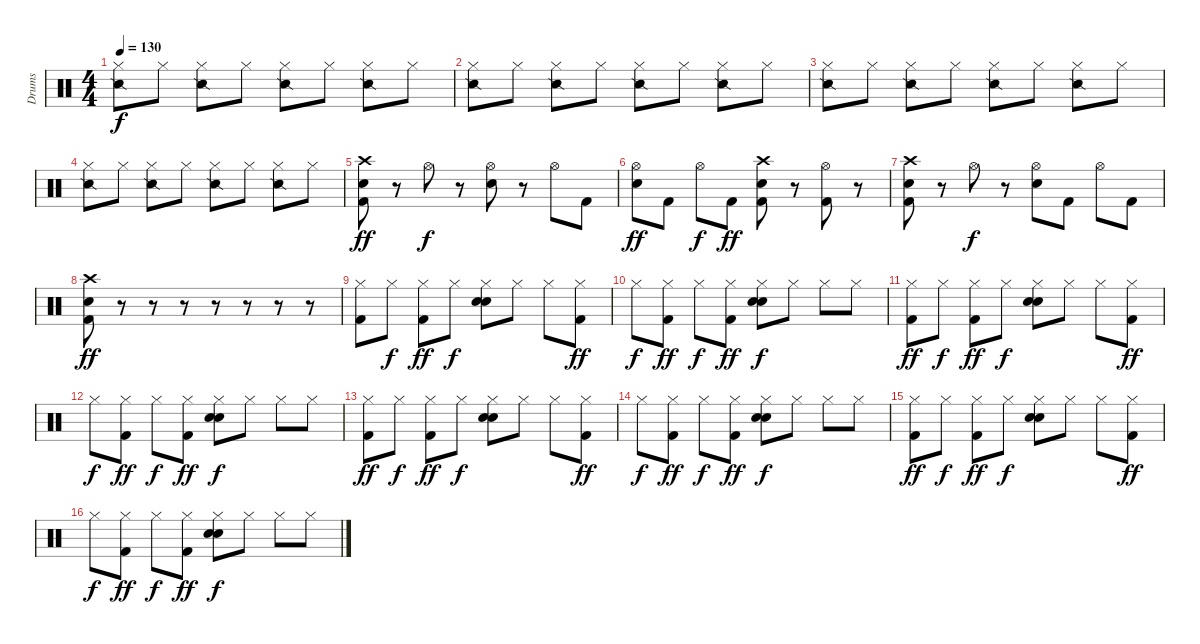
\track ("Drums" "Drums") {instrument percussion}
\staff {score}
\articulation defaults
\ts (4 4)
\tempo 130
\clef neutral
\ks c
("Snare (side stick) 2" "Hi-Hat (closed)").8{dy f} "Hi-Hat (closed)".8 ("Snare (side stick) 2" "Hi-Hat (closed)").8 "Hi-Hat (closed)".8 ("Snare (side stick) 2" "Hi-Hat (closed)").8 "Hi-Hat (closed)".8 ("Snare (side stick) 2" "Hi-Hat (closed)").8 "Hi-Hat (closed)".8 |
("Snare (side stick) 2" "Hi-Hat (closed)").8 "Hi-Hat (closed)".8 ("Snare (side stick) 2" "Hi-Hat (closed)").8 "Hi-Hat (closed)".8 ("Snare (side stick) 2" "Hi-Hat (closed)").8 "Hi-Hat (closed)".8 ("Snare (side stick) 2" "Hi-Hat (closed)").8 "Hi-Hat (closed)".8 |
("Snare (side stick) 2" "Hi-Hat (closed)").8 "Hi-Hat (closed)".8 ("Snare (side stick) 2" "Hi-Hat (closed)").8 "Hi-Hat (closed)".8 ("Snare (side stick) 2" "Hi-Hat (closed)").8 "Hi-Hat (closed)".8 ("Snare (side stick) 2" "Hi-Hat (closed)").8 "Hi-Hat (closed)".8 |
("Snare (side stick) 2" "Hi-Hat (closed)").8 "Hi-Hat (closed)".8 ("Snare (side stick) 2" "Hi-Hat (closed)").8 "Hi-Hat (closed)".8 ("Snare (side stick) 2" "Hi-Hat (closed)").8 "Hi-Hat (closed)".8 ("Snare (side stick) 2" "Hi-Hat (closed)").8 "Hi-Hat (closed)".8 |
("Crash high (hit)" "Snare (hit) 2" "Kick (hit) 2").8{dy ff} r.8 "Hi-Hat (open)".8{dy f} r.8 ("Hi-Hat (open)" "Snare (hit) 2").8 r.8 "Hi-Hat (open)".8 "Kick (hit) 2".8 |
("Hi-Hat (open)" "Snare (hit) 2").8{dy ff} "Kick (hit) 2".8 "Hi-Hat (open)".8{dy f} "Kick (hit) 2".8{dy ff} ("Crash high (hit)" "Snare (hit) 2" "Kick (hit) 2").8 r.8 ("Hi-Hat (open)" "Kick (hit) 2").8 r.8 |
("Crash high (hit)" "Snare (hit) 2" "Kick (hit) 2").8 r.8 "Hi-Hat (open)".8{dy f} r.8 ("Hi-Hat (open)" "Snare (hit) 2").8 "Kick (hit) 2".8 "Hi-Hat (open)".8 "Kick (hit) 2".8 |
("Crash high (hit)" "Snare (hit) 2" "Kick (hit) 2").8{dy ff} r.8 r.8 r.8 r.8 r.8 r.8 r.8 |
("Hi-Hat (closed)" "Kick (hit) 2").8 "Hi-Hat (closed)".8{dy f} ("Hi-Hat (closed)" "Kick (hit) 2").8{dy ff} "Hi-Hat (closed)".8{dy f} ("Snare (hit) 2" "Electric Snare (hit)" "Hi-Hat (closed)").8 "Hi-Hat (closed)".8 "Hi-Hat (closed)".8 ("Hi-Hat (closed)" "Kick (hit) 2").8{dy ff} |
"Hi-Hat (closed)".8{dy f} ("Hi-Hat (closed)" "Kick (hit) 2").8{dy ff} "Hi-Hat (closed)".8{dy f} ("Hi-Hat (closed)" "Kick (hit) 2").8{dy ff} ("Snare (hit) 2" "Electric Snare (hit)" "Hi-Hat (closed)").8{dy f} "Hi-Hat (closed)".8 "Hi-Hat (closed)".8 "Hi-Hat (closed)".8 |
("Hi-Hat (closed)" "Kick (hit) 2").8{dy ff} "Hi-Hat (closed)".8{dy f} ("Hi-Hat (closed)" "Kick (hit) 2").8{dy ff} "Hi-Hat (closed)".8{dy f} ("Snare (hit) 2" "Electric Snare (hit)" "Hi-Hat (closed)").8 "Hi-Hat (closed)".8 "Hi-Hat (closed)".8 ("Hi-Hat (closed)" "Kick (hit) 2").8{dy ff} |
"Hi-Hat (closed)".8{dy f} ("Hi-Hat (closed)" "Kick (hit) 2").8{dy ff} "Hi-Hat (closed)".8{dy f} ("Hi-Hat (closed)" "Kick (hit) 2").8{dy ff} ("Snare (hit) 2" "Electric Snare (hit)" "Hi-Hat (closed)").8{dy f} "Hi-Hat (closed)".8 "Hi-Hat (closed)".8 "Hi-Hat (closed)".8 |
("Hi-Hat (closed)" "Kick (hit) 2").8{dy ff} "Hi-Hat (closed)".8{dy f} ("Hi-Hat (closed)" "Kick (hit) 2").8{dy ff} "Hi-Hat (closed)".8{dy f} ("Snare (hit) 2" "Electric Snare (hit)" "Hi-Hat (closed)").8 "Hi-Hat (closed)".8 "Hi-Hat (closed)".8 ("Hi-Hat (closed)" "Kick (hit) 2").8{dy ff} |
"Hi-Hat (closed)".8{dy f} ("Hi-Hat (closed)" "Kick (hit) 2").8{dy ff} "Hi-Hat (closed)".8{dy f} ("Hi-Hat (closed)" "Kick (hit) 2").8{dy ff} ("Snare (hit) 2" "Electric Snare (hit)" "Hi-Hat (closed)").8{dy f} "Hi-Hat (closed)".8 "Hi-Hat (closed)".8 "Hi-Hat (closed)".8 |
("Hi-Hat (closed)" "Kick (hit) 2").8{dy ff} "Hi-Hat (closed)".8{dy f} ("Hi-Hat (closed)" "Kick (hit) 2").8{dy ff} "Hi-Hat (closed)".8{dy f} ("Snare (hit) 2" "Electric Snare (hit)" "Hi-Hat (closed)").8 "Hi-Hat (closed)".8 "Hi-Hat (closed)".8 ("Hi-Hat (closed)" "Kick (hit) 2").8{dy ff} |
"Hi-Hat (closed)".8{dy f} ("Hi-Hat (closed)" "Kick (hit) 2").8{dy ff} "Hi-Hat (closed)".8{dy f} ("Hi-Hat (closed)" "Kick (hit) 2").8{dy ff} ("Snare (hit) 2" "Electric Snare (hit)" "Hi-Hat (closed)").8{dy f} "Hi-Hat (closed)".8 "Hi-Hat (closed)".8 "Hi-Hat (closed)".8
